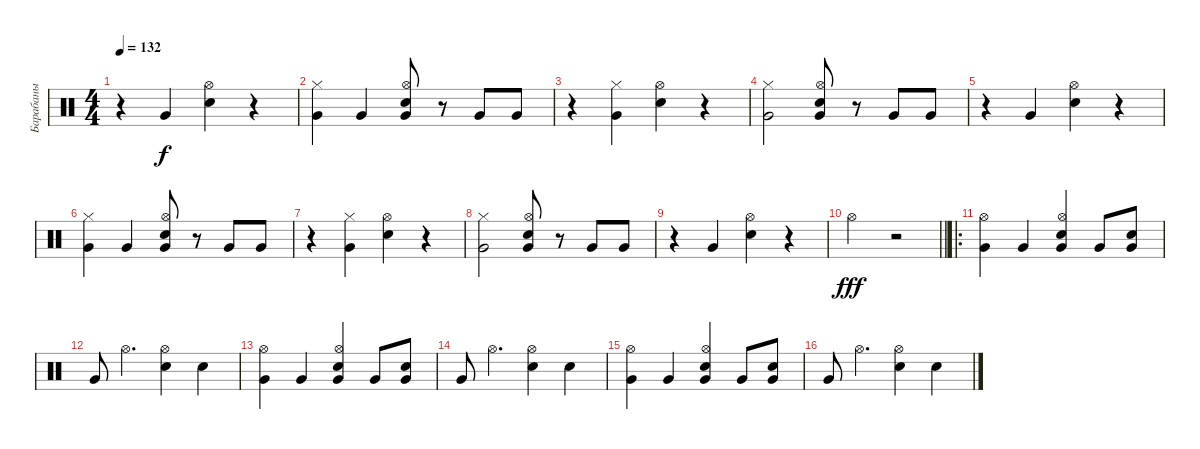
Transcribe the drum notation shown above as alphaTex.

\track ("Барабаны" "Барабаны") {instrument percussion}
\staff {score}
\articulation defaults
\ts (4 4)
\tempo 132
\clef neutral
\ks c
r.4{dy f} "Very Low Tom (hit)".4 ("Snare (hit) 2" "Hi-Hat (open)").4 r.4 |
("Hi-Hat (closed)" "Very Low Tom (hit)").4 "Very Low Tom (hit)".4 ("Electric Snare (hit)" "Hi-Hat (open)" "Very Low Tom (hit)").8 r.8 "Very Low Tom (hit)".8 "Very Low Tom (hit)".8 |
r.4 ("Very Low Tom (hit)" "Hi-Hat (closed)").4 ("Snare (hit) 2" "Hi-Hat (open)").4 r.4 |
("Hi-Hat (closed)" "Very Low Tom (hit)").2 ("Electric Snare (hit)" "Hi-Hat (open)" "Very Low Tom (hit)").8 r.8 "Very Low Tom (hit)".8 "Very Low Tom (hit)".8 |
r.4 "Very Low Tom (hit)".4 ("Snare (hit) 2" "Hi-Hat (open)").4 r.4 |
("Hi-Hat (closed)" "Very Low Tom (hit)").4 "Very Low Tom (hit)".4 ("Electric Snare (hit)" "Hi-Hat (open)" "Very Low Tom (hit)").8 r.8 "Very Low Tom (hit)".8 "Very Low Tom (hit)".8 |
r.4 ("Very Low Tom (hit)" "Hi-Hat (closed)").4 ("Snare (hit) 2" "Hi-Hat (open)").4 r.4 |
("Hi-Hat (closed)" "Very Low Tom (hit)").2 ("Electric Snare (hit)" "Hi-Hat (open)" "Very Low Tom (hit)").8 r.8 "Very Low Tom (hit)".8 "Very Low Tom (hit)".8 |
r.4 "Very Low Tom (hit)".4 ("Snare (hit) 2" "Hi-Hat (open)").4 r.4 |
\barLineRight lightlight "Hi-Hat (open)".2{dy fff}
r.2 |
\ro
("Very Low Tom (hit)" "Hi-Hat (open)").4 "Very Low Tom (hit)".4 ("Electric Snare (hit)" "Very Low Tom (hit)" "Hi-Hat (open)").4 "Very Low Tom (hit)".8 ("Electric Snare (hit)" "Very Low Tom (hit)").8 |
"Very Low Tom (hit)".8 "Hi-Hat (open)".4{d} ("Hi-Hat (open)" "Snare (hit) 2").4 "Snare (hit) 2".4 |
("Very Low Tom (hit)" "Hi-Hat (open)").4 "Very Low Tom (hit)".4 ("Electric Snare (hit)" "Very Low Tom (hit)" "Hi-Hat (open)").4 "Very Low Tom (hit)".8 ("Electric Snare (hit)" "Very Low Tom (hit)").8 |
"Very Low Tom (hit)".8 "Hi-Hat (open)".4{d} ("Hi-Hat (open)" "Snare (hit) 2").4 "Snare (hit) 2".4 |
("Very Low Tom (hit)" "Hi-Hat (open)").4 "Very Low Tom (hit)".4 ("Electric Snare (hit)" "Very Low Tom (hit)" "Hi-Hat (open)").4 "Very Low Tom (hit)".8 ("Electric Snare (hit)" "Very Low Tom (hit)").8 |
"Very Low Tom (hit)".8 "Hi-Hat (open)".4{d} ("Hi-Hat (open)" "Snare (hit) 2").4 "Snare (hit) 2".4
